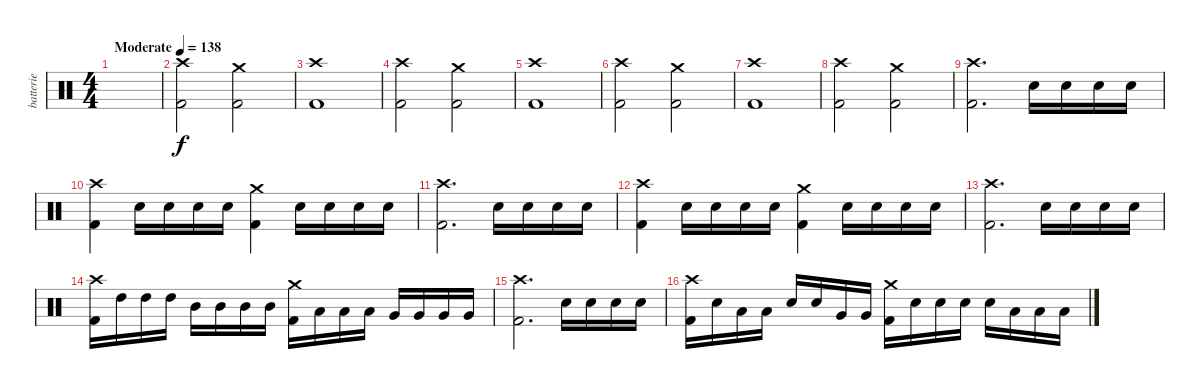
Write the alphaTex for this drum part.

\track ("batterie" "batterie") {instrument percussion}
\staff {score}
\articulation defaults
\ts (4 4)
\tempo (138 "Moderate")
\clef neutral
\ks c
|
("Crash high (hit)" "Kick (hit) 2").2 ("Crash medium (hit)" "Kick (hit) 2").2 |
("Crash high (hit)" "Kick (hit) 2").1 |
("Crash high (hit)" "Kick (hit) 2").2 ("Crash medium (hit)" "Kick (hit) 2").2 |
("Crash high (hit)" "Kick (hit) 2").1 |
("Crash high (hit)" "Kick (hit) 2").2 ("Crash medium (hit)" "Kick (hit) 2").2 |
("Crash high (hit)" "Kick (hit) 2").1 |
("Crash high (hit)" "Kick (hit) 2").2 ("Crash medium (hit)" "Kick (hit) 2").2 |
("Crash high (hit)" "Kick (hit) 2").2{d} "Electric Snare (hit)".16 "Electric Snare (hit)".16 "Electric Snare (hit)".16 "Electric Snare (hit)".16 |
("Crash high (hit)" "Kick (hit) 2").4 "Electric Snare (hit)".16 "Electric Snare (hit)".16 "Electric Snare (hit)".16 "Electric Snare (hit)".16 ("Crash medium (hit)" "Kick (hit) 2").4 "Electric Snare (hit)".16 "Electric Snare (hit)".16 "Electric Snare (hit)".16 "Electric Snare (hit)".16 |
("Crash high (hit)" "Kick (hit) 2").2{d} "Electric Snare (hit)".16 "Electric Snare (hit)".16 "Electric Snare (hit)".16 "Electric Snare (hit)".16 |
("Crash high (hit)" "Kick (hit) 2").4 "Electric Snare (hit)".16 "Electric Snare (hit)".16 "Electric Snare (hit)".16 "Electric Snare (hit)".16 ("Crash medium (hit)" "Kick (hit) 2").4 "Electric Snare (hit)".16 "Electric Snare (hit)".16 "Electric Snare (hit)".16 "Electric Snare (hit)".16 |
("Crash high (hit)" "Kick (hit) 2").2{d} "Electric Snare (hit)".16 "Electric Snare (hit)".16 "Electric Snare (hit)".16 "Electric Snare (hit)".16 |
("Crash high (hit)" "Kick (hit) 2").16 "High Tom (hit)".16 "High Tom (hit)".16 "High Tom (hit)".16 "Mid Tom (hit)".16 "Mid Tom (hit)".16 "Mid Tom (hit)".16 "Mid Tom (hit)".16 ("Crash medium (hit)" "Kick (hit) 2").16 "Low Tom (hit)".16 "Low Tom (hit)".16 "Low Tom (hit)".16 "Very Low Tom (hit)".16 "Very Low Tom (hit)".16 "Very Low Tom (hit)".16 "Very Low Tom (hit)".16 |
("Crash high (hit)" "Kick (hit) 2").2{d} "Electric Snare (hit)".16 "Electric Snare (hit)".16 "Electric Snare (hit)".16 "Electric Snare (hit)".16 |
("Crash high (hit)" "Kick (hit) 2").16 "Electric Snare (hit)".16 "Low Tom (hit)".16 "Low Tom (hit)".16 "Electric Snare (hit)".16 "Electric Snare (hit)".16 "Very Low Tom (hit)".16 "Very Low Tom (hit)".16 ("Crash medium (hit)" "Kick (hit) 2").16 "Electric Snare (hit)".16 "Electric Snare (hit)".16 "Electric Snare (hit)".16 "Electric Snare (hit)".16 "Low Floor Tom (hit)".16 "Low Floor Tom (hit)".16 "Low Floor Tom (hit)".16
